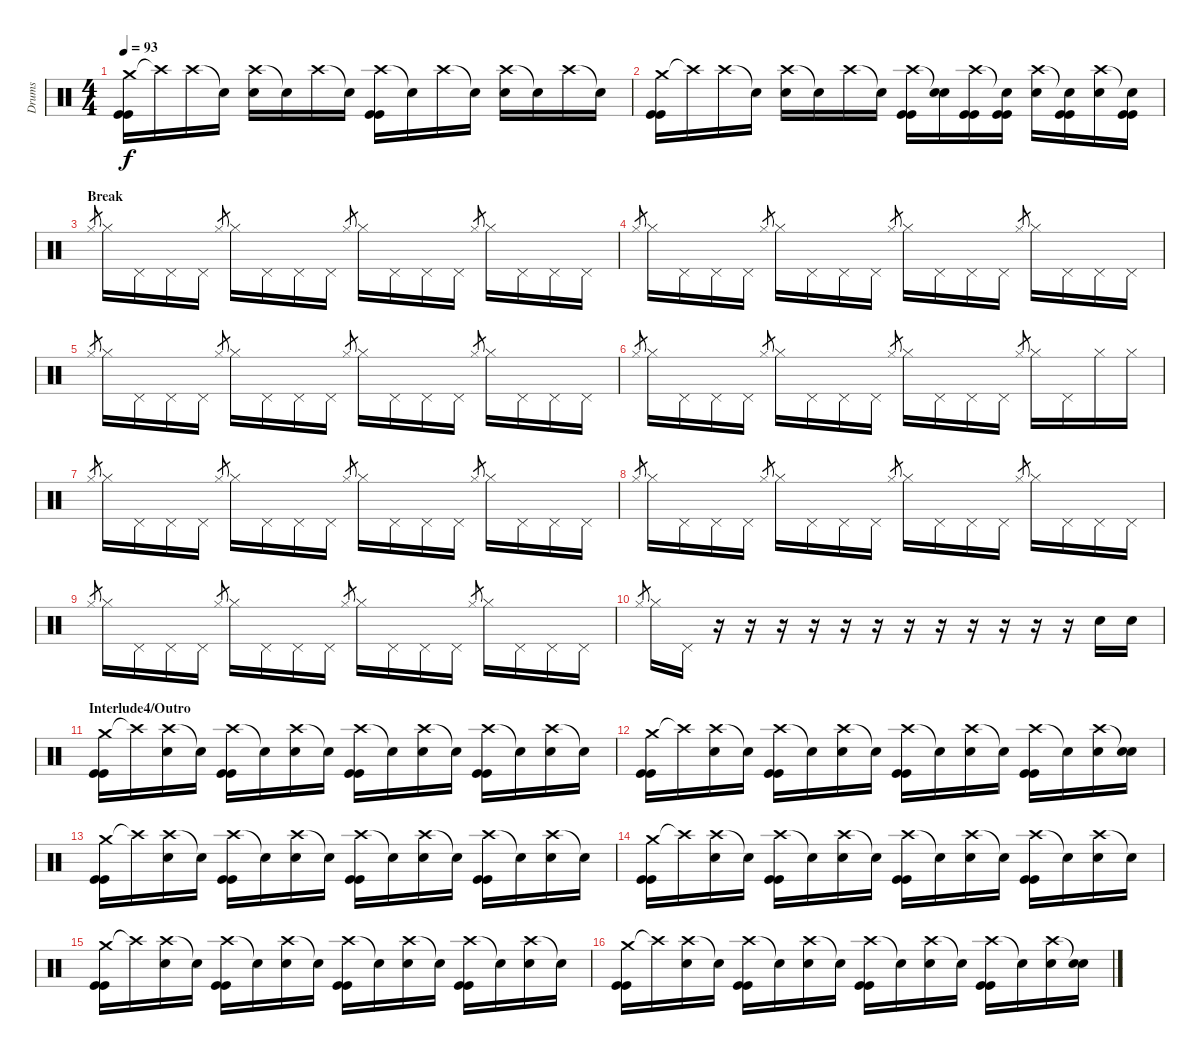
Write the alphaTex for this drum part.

\track ("Drums " "Drums ") {instrument percussion}
\staff {score}
\articulation defaults
\ts (4 4)
\tempo 93
\clef neutral
\ks c
("Crash medium (hit)" "Kick (hit)" "Kick (hit)").16{dy f} "Crash high (hit)"{t}.16 "Crash high (hit)".16 "Snare (hit)"{t}.16 ("Crash high (hit)" "Snare (hit) 2").16 "Snare (hit)"{t}.16 "Crash high (hit)".16 "Snare (hit)"{t}.16 ("Crash high (hit)" "Kick (hit)" "Kick (hit)").16 "Snare (hit)"{t}.16 "Crash high (hit)".16 "Snare (hit)"{t}.16 ("Crash high (hit)" "Snare (hit) 2").16 "Snare (hit)"{t}.16 "Crash high (hit)".16 "Snare (hit)"{t}.16 |
("Crash medium (hit)" "Kick (hit)" "Kick (hit)").16 "Crash high (hit)"{t}.16 "Crash high (hit)".16 "Snare (hit)"{t}.16 ("Crash high (hit)" "Snare (hit) 2").16 "Snare (hit)"{t}.16 "Crash high (hit)".16 "Snare (hit)"{t}.16 ("Crash high (hit)" "Kick (hit)" "Kick (hit)").16 ("Snare (hit)"{t} "Snare (hit) 2").16 ("Crash high (hit)" "Kick (hit)" "Kick (hit)").16 ("Snare (hit)"{t} "Kick (hit)" "Kick (hit)").16 ("Crash high (hit)" "Snare (hit) 2").16 ("Snare (hit)"{t} "Kick (hit)" "Kick (hit)").16 ("Crash high (hit)" "Snare (hit) 2").16 ("Snare (hit)"{t} "Kick (hit)" "Kick (hit)").16 |
\section ("" "Break")
"Hi-Hat (closed)".8{gr} "Hi-Hat (closed)".16 "Pedal Hi-Hat (hit)".16 "Pedal Hi-Hat (hit)".16 "Pedal Hi-Hat (hit)".16 "Hi-Hat (closed)".8{gr} "Hi-Hat (closed)".16 "Pedal Hi-Hat (hit)".16 "Pedal Hi-Hat (hit)".16 "Pedal Hi-Hat (hit)".16 "Hi-Hat (closed)".8{gr} "Hi-Hat (closed)".16 "Pedal Hi-Hat (hit)".16 "Pedal Hi-Hat (hit)".16 "Pedal Hi-Hat (hit)".16 "Hi-Hat (closed)".8{gr} "Hi-Hat (closed)".16 "Pedal Hi-Hat (hit)".16 "Pedal Hi-Hat (hit)".16 "Pedal Hi-Hat (hit)".16 |
"Hi-Hat (closed)".8{gr} "Hi-Hat (closed)".16 "Pedal Hi-Hat (hit)".16 "Pedal Hi-Hat (hit)".16 "Pedal Hi-Hat (hit)".16 "Hi-Hat (closed)".8{gr} "Hi-Hat (closed)".16 "Pedal Hi-Hat (hit)".16 "Pedal Hi-Hat (hit)".16 "Pedal Hi-Hat (hit)".16 "Hi-Hat (closed)".8{gr} "Hi-Hat (closed)".16 "Pedal Hi-Hat (hit)".16 "Pedal Hi-Hat (hit)".16 "Pedal Hi-Hat (hit)".16 "Hi-Hat (closed)".8{gr} "Hi-Hat (closed)".16 "Pedal Hi-Hat (hit)".16 "Pedal Hi-Hat (hit)".16 "Pedal Hi-Hat (hit)".16 |
"Hi-Hat (closed)".8{gr} "Hi-Hat (closed)".16 "Pedal Hi-Hat (hit)".16 "Pedal Hi-Hat (hit)".16 "Pedal Hi-Hat (hit)".16 "Hi-Hat (closed)".8{gr} "Hi-Hat (closed)".16 "Pedal Hi-Hat (hit)".16 "Pedal Hi-Hat (hit)".16 "Pedal Hi-Hat (hit)".16 "Hi-Hat (closed)".8{gr} "Hi-Hat (closed)".16 "Pedal Hi-Hat (hit)".16 "Pedal Hi-Hat (hit)".16 "Pedal Hi-Hat (hit)".16 "Hi-Hat (closed)".8{gr} "Hi-Hat (closed)".16 "Pedal Hi-Hat (hit)".16 "Pedal Hi-Hat (hit)".16 "Pedal Hi-Hat (hit)".16 |
"Hi-Hat (closed)".8{gr} "Hi-Hat (closed)".16 "Pedal Hi-Hat (hit)".16 "Pedal Hi-Hat (hit)".16 "Pedal Hi-Hat (hit)".16 "Hi-Hat (closed)".8{gr} "Hi-Hat (closed)".16 "Pedal Hi-Hat (hit)".16 "Pedal Hi-Hat (hit)".16 "Pedal Hi-Hat (hit)".16 "Hi-Hat (closed)".8{gr} "Hi-Hat (closed)".16 "Pedal Hi-Hat (hit)".16 "Pedal Hi-Hat (hit)".16 "Pedal Hi-Hat (hit)".16 "Hi-Hat (closed)".8{gr} "Hi-Hat (closed)".16 "Pedal Hi-Hat (hit)".16 "Hi-Hat (closed)".16 "Hi-Hat (closed)".16 |
"Hi-Hat (closed)".8{gr} "Hi-Hat (closed)".16 "Pedal Hi-Hat (hit)".16 "Pedal Hi-Hat (hit)".16 "Pedal Hi-Hat (hit)".16 "Hi-Hat (closed)".8{gr} "Hi-Hat (closed)".16 "Pedal Hi-Hat (hit)".16 "Pedal Hi-Hat (hit)".16 "Pedal Hi-Hat (hit)".16 "Hi-Hat (closed)".8{gr} "Hi-Hat (closed)".16 "Pedal Hi-Hat (hit)".16 "Pedal Hi-Hat (hit)".16 "Pedal Hi-Hat (hit)".16 "Hi-Hat (closed)".8{gr} "Hi-Hat (closed)".16 "Pedal Hi-Hat (hit)".16 "Pedal Hi-Hat (hit)".16 "Pedal Hi-Hat (hit)".16 |
"Hi-Hat (closed)".8{gr} "Hi-Hat (closed)".16 "Pedal Hi-Hat (hit)".16 "Pedal Hi-Hat (hit)".16 "Pedal Hi-Hat (hit)".16 "Hi-Hat (closed)".8{gr} "Hi-Hat (closed)".16 "Pedal Hi-Hat (hit)".16 "Pedal Hi-Hat (hit)".16 "Pedal Hi-Hat (hit)".16 "Hi-Hat (closed)".8{gr} "Hi-Hat (closed)".16 "Pedal Hi-Hat (hit)".16 "Pedal Hi-Hat (hit)".16 "Pedal Hi-Hat (hit)".16 "Hi-Hat (closed)".8{gr} "Hi-Hat (closed)".16 "Pedal Hi-Hat (hit)".16 "Pedal Hi-Hat (hit)".16 "Pedal Hi-Hat (hit)".16 |
"Hi-Hat (closed)".8{gr} "Hi-Hat (closed)".16 "Pedal Hi-Hat (hit)".16 "Pedal Hi-Hat (hit)".16 "Pedal Hi-Hat (hit)".16 "Hi-Hat (closed)".8{gr} "Hi-Hat (closed)".16 "Pedal Hi-Hat (hit)".16 "Pedal Hi-Hat (hit)".16 "Pedal Hi-Hat (hit)".16 "Hi-Hat (closed)".8{gr} "Hi-Hat (closed)".16 "Pedal Hi-Hat (hit)".16 "Pedal Hi-Hat (hit)".16 "Pedal Hi-Hat (hit)".16 "Hi-Hat (closed)".8{gr} "Hi-Hat (closed)".16 "Pedal Hi-Hat (hit)".16 "Pedal Hi-Hat (hit)".16 "Pedal Hi-Hat (hit)".16 |
"Hi-Hat (closed)".8{gr} "Hi-Hat (closed)".16 "Pedal Hi-Hat (hit)".16 r.16 r.16 r.16 r.16 r.16 r.16 r.16 r.16 r.16 r.16 r.16 r.16 "Snare (hit) 2".16 "Snare (hit) 2".16 |
\section ("" "Interlude4/Outro")
("Crash medium (hit)" "Kick (hit)" "Kick (hit)").16 "Crash high (hit)"{t}.16 ("Crash high (hit)" "Snare (hit) 2").16 "Snare (hit)"{t}.16 ("Crash high (hit)" "Kick (hit)" "Kick (hit)").16 "Snare (hit)"{t}.16 ("Crash high (hit)" "Snare (hit) 2").16 "Snare (hit)"{t}.16 ("Crash high (hit)" "Kick (hit)" "Kick (hit)").16 "Snare (hit)"{t}.16 ("Crash high (hit)" "Snare (hit) 2").16 "Snare (hit)"{t}.16 ("Crash high (hit)" "Kick (hit)" "Kick (hit)").16 "Snare (hit)"{t}.16 ("Crash high (hit)" "Snare (hit) 2").16 "Snare (hit)"{t}.16 |
("Crash medium (hit)" "Kick (hit)" "Kick (hit)").16 "Crash high (hit)"{t}.16 ("Crash high (hit)" "Snare (hit) 2").16 "Snare (hit)"{t}.16 ("Crash high (hit)" "Kick (hit)" "Kick (hit)").16 "Snare (hit)"{t}.16 ("Crash high (hit)" "Snare (hit) 2").16 "Snare (hit)"{t}.16 ("Crash high (hit)" "Kick (hit)" "Kick (hit)").16 "Snare (hit)"{t}.16 ("Crash high (hit)" "Snare (hit) 2").16 "Snare (hit)"{t}.16 ("Crash high (hit)" "Kick (hit)" "Kick (hit)").16 "Snare (hit)"{t}.16 ("Crash high (hit)" "Snare (hit) 2").16 ("Snare (hit)"{t} "Snare (hit) 2").16 |
("Crash medium (hit)" "Kick (hit)" "Kick (hit)").16 "Crash high (hit)"{t}.16 ("Crash high (hit)" "Snare (hit) 2").16 "Snare (hit)"{t}.16 ("Crash high (hit)" "Kick (hit)" "Kick (hit)").16 "Snare (hit)"{t}.16 ("Crash high (hit)" "Snare (hit) 2").16 "Snare (hit)"{t}.16 ("Crash high (hit)" "Kick (hit)" "Kick (hit)").16 "Snare (hit)"{t}.16 ("Crash high (hit)" "Snare (hit) 2").16 "Snare (hit)"{t}.16 ("Crash high (hit)" "Kick (hit)" "Kick (hit)").16 "Snare (hit)"{t}.16 ("Crash high (hit)" "Snare (hit) 2").16 "Snare (hit)"{t}.16 |
("Crash medium (hit)" "Kick (hit)" "Kick (hit)").16 "Crash high (hit)"{t}.16 ("Crash high (hit)" "Snare (hit) 2").16 "Snare (hit)"{t}.16 ("Crash high (hit)" "Kick (hit)" "Kick (hit)").16 "Snare (hit)"{t}.16 ("Crash high (hit)" "Snare (hit) 2").16 "Snare (hit)"{t}.16 ("Crash high (hit)" "Kick (hit)" "Kick (hit)").16 "Snare (hit)"{t}.16 ("Crash high (hit)" "Snare (hit) 2").16 "Snare (hit)"{t}.16 ("Crash high (hit)" "Kick (hit)" "Kick (hit)").16 "Snare (hit)"{t}.16 ("Crash high (hit)" "Snare (hit) 2").16 "Snare (hit)"{t}.16 |
("Crash medium (hit)" "Kick (hit)" "Kick (hit)").16 "Crash high (hit)"{t}.16 ("Crash high (hit)" "Snare (hit) 2").16 "Snare (hit)"{t}.16 ("Crash high (hit)" "Kick (hit)" "Kick (hit)").16 "Snare (hit)"{t}.16 ("Crash high (hit)" "Snare (hit) 2").16 "Snare (hit)"{t}.16 ("Crash high (hit)" "Kick (hit)" "Kick (hit)").16 "Snare (hit)"{t}.16 ("Crash high (hit)" "Snare (hit) 2").16 "Snare (hit)"{t}.16 ("Crash high (hit)" "Kick (hit)" "Kick (hit)").16 "Snare (hit)"{t}.16 ("Crash high (hit)" "Snare (hit) 2").16 "Snare (hit)"{t}.16 |
("Crash medium (hit)" "Kick (hit)" "Kick (hit)").16 "Crash high (hit)"{t}.16 ("Crash high (hit)" "Snare (hit) 2").16 "Snare (hit)"{t}.16 ("Crash high (hit)" "Kick (hit)" "Kick (hit)").16 "Snare (hit)"{t}.16 ("Crash high (hit)" "Snare (hit) 2").16 "Snare (hit)"{t}.16 ("Crash high (hit)" "Kick (hit)" "Kick (hit)").16 "Snare (hit)"{t}.16 ("Crash high (hit)" "Snare (hit) 2").16 "Snare (hit)"{t}.16 ("Crash high (hit)" "Kick (hit)" "Kick (hit)").16 "Snare (hit)"{t}.16 ("Crash high (hit)" "Snare (hit) 2").16 ("Snare (hit)"{t} "Snare (hit) 2").16
